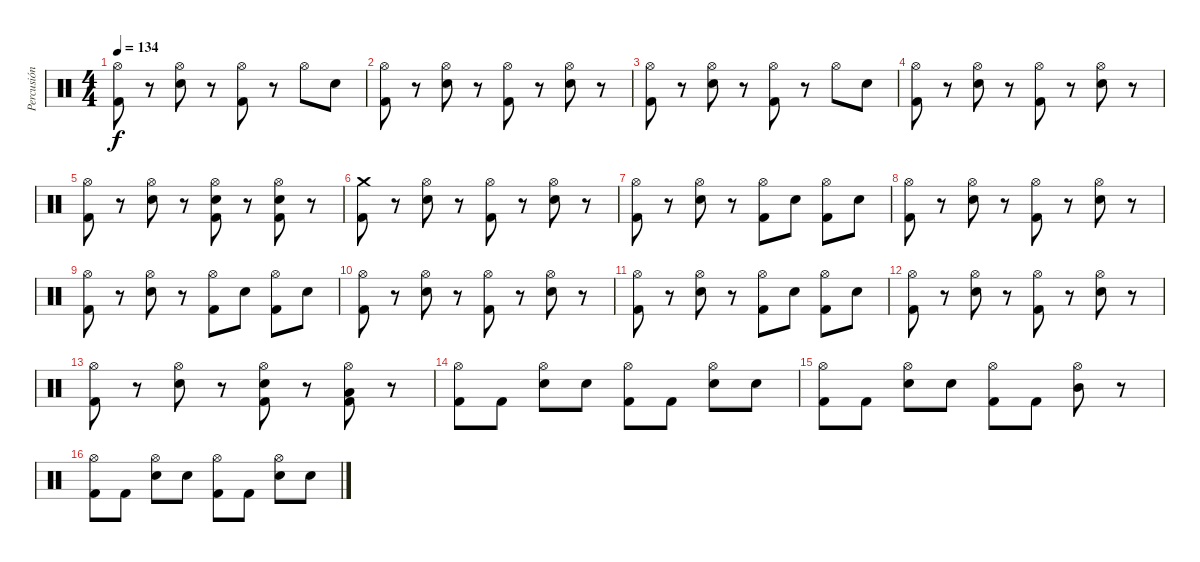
\track ("Percusión" "Percusión") {instrument percussion}
\staff {score}
\articulation defaults
\ts (4 4)
\tempo 134
\clef neutral
\ks c
("Hi-Hat (open)" "Kick (hit) 2").8{dy f} r.8 ("Hi-Hat (open)" "Snare (hit) 2").8 r.8 ("Hi-Hat (open)" "Kick (hit) 2").8 r.8 "Hi-Hat (open)".8 "Snare (hit) 2".8 |
("Hi-Hat (open)" "Kick (hit) 2").8 r.8 ("Hi-Hat (open)" "Snare (hit) 2").8 r.8 ("Hi-Hat (open)" "Kick (hit) 2").8 r.8 ("Hi-Hat (open)" "Snare (hit) 2").8 r.8 |
("Hi-Hat (open)" "Kick (hit) 2").8 r.8 ("Hi-Hat (open)" "Snare (hit) 2").8 r.8 ("Hi-Hat (open)" "Kick (hit) 2").8 r.8 "Hi-Hat (open)".8 "Snare (hit) 2".8 |
("Hi-Hat (open)" "Kick (hit) 2").8 r.8 ("Hi-Hat (open)" "Snare (hit) 2").8 r.8 ("Hi-Hat (open)" "Kick (hit) 2").8 r.8 ("Hi-Hat (open)" "Snare (hit) 2").8 r.8 |
("Hi-Hat (open)" "Kick (hit) 2").8 r.8 ("Hi-Hat (open)" "Snare (hit) 2").8 r.8 ("Hi-Hat (open)" "Snare (hit) 2" "Kick (hit) 2").8 r.8 ("Hi-Hat (open)" "Snare (hit) 2" "Kick (hit) 2").8 r.8 |
("Crash medium (hit)" "Kick (hit) 2").8 r.8 ("Hi-Hat (open)" "Snare (hit) 2").8 r.8 ("Hi-Hat (open)" "Kick (hit) 2").8 r.8 ("Hi-Hat (open)" "Snare (hit) 2").8 r.8 |
("Hi-Hat (open)" "Kick (hit) 2").8 r.8 ("Hi-Hat (open)" "Snare (hit) 2").8 r.8 ("Hi-Hat (open)" "Kick (hit) 2").8 "Snare (hit) 2".8 ("Hi-Hat (open)" "Kick (hit) 2").8 "Snare (hit) 2".8 |
("Hi-Hat (open)" "Kick (hit) 2").8 r.8 ("Hi-Hat (open)" "Snare (hit) 2").8 r.8 ("Hi-Hat (open)" "Kick (hit) 2").8 r.8 ("Hi-Hat (open)" "Snare (hit) 2").8 r.8 |
("Hi-Hat (open)" "Kick (hit) 2").8 r.8 ("Hi-Hat (open)" "Snare (hit) 2").8 r.8 ("Hi-Hat (open)" "Kick (hit) 2").8 "Snare (hit) 2".8 ("Hi-Hat (open)" "Kick (hit) 2").8 "Snare (hit) 2".8 |
("Hi-Hat (open)" "Kick (hit) 2").8 r.8 ("Hi-Hat (open)" "Snare (hit) 2").8 r.8 ("Hi-Hat (open)" "Kick (hit) 2").8 r.8 ("Hi-Hat (open)" "Snare (hit) 2").8 r.8 |
("Hi-Hat (open)" "Kick (hit) 2").8 r.8 ("Hi-Hat (open)" "Snare (hit) 2").8 r.8 ("Hi-Hat (open)" "Kick (hit) 2").8 "Snare (hit) 2".8 ("Hi-Hat (open)" "Kick (hit) 2").8 "Snare (hit) 2".8 |
("Hi-Hat (open)" "Kick (hit) 2").8 r.8 ("Hi-Hat (open)" "Snare (hit) 2").8 r.8 ("Hi-Hat (open)" "Kick (hit) 2").8 r.8 ("Hi-Hat (open)" "Snare (hit) 2").8 r.8 |
("Hi-Hat (open)" "Kick (hit) 2").8 r.8 ("Hi-Hat (open)" "Snare (hit) 2").8 r.8 ("Hi-Hat (open)" "Snare (hit) 2" "Kick (hit) 2").8 r.8 ("Hi-Hat (open)" "Low Floor Tom (hit)" "Kick (hit) 2").8 r.8 |
("Hi-Hat (open)" "Kick (hit) 2").8 "Kick (hit) 2".8 ("Hi-Hat (open)" "Snare (hit) 2").8 "Snare (hit) 2".8 ("Hi-Hat (open)" "Kick (hit) 2").8 "Kick (hit) 2".8 ("Hi-Hat (open)" "Snare (hit) 2").8 "Snare (hit) 2".8 |
("Hi-Hat (open)" "Kick (hit) 2").8 "Kick (hit) 2".8 ("Hi-Hat (open)" "Snare (hit) 2").8 "Snare (hit) 2".8 ("Hi-Hat (open)" "Kick (hit) 2").8 "Kick (hit) 2".8 ("Hi-Hat (open)" "Mid Tom (hit)").8 r.8 |
("Hi-Hat (open)" "Kick (hit) 2").8 "Kick (hit) 2".8 ("Hi-Hat (open)" "Snare (hit) 2").8 "Snare (hit) 2".8 ("Hi-Hat (open)" "Kick (hit) 2").8 "Kick (hit) 2".8 ("Hi-Hat (open)" "Snare (hit) 2").8 "Snare (hit) 2".8
